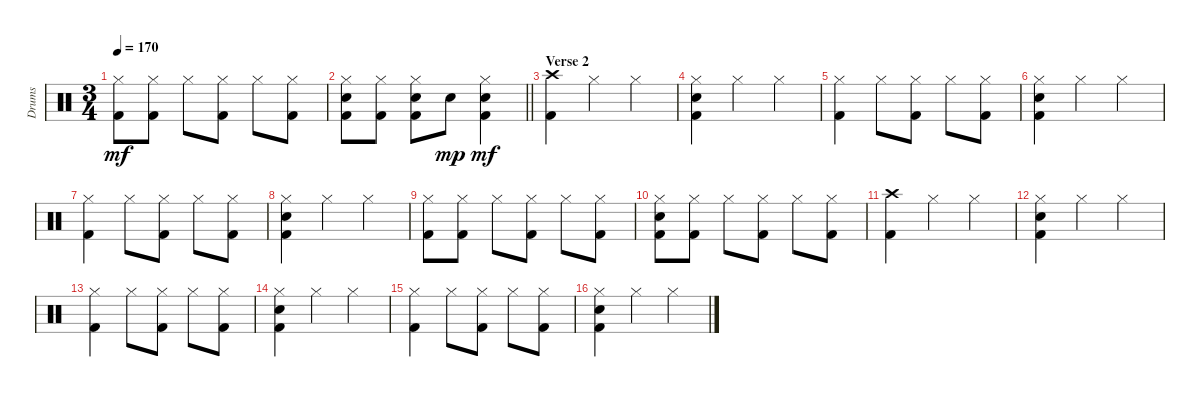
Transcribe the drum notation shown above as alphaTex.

\track ("Drums" "Drums") {instrument percussion}
\staff {score}
\articulation defaults
\ts (3 4)
\tempo 170
\clef neutral
\ks c
("Hi-Hat (closed)" "Kick (hit) 2").8{dy mf} ("Hi-Hat (closed)" "Kick (hit) 2").8 "Hi-Hat (closed)".8 ("Hi-Hat (closed)" "Kick (hit) 2").8 "Hi-Hat (closed)".8 ("Hi-Hat (closed)" "Kick (hit) 2").8 |
\barLineRight lightlight
("Hi-Hat (closed)" "Snare (hit) 2" "Kick (hit) 2").8 ("Hi-Hat (closed)" "Kick (hit) 2").8 ("Hi-Hat (closed)" "Snare (hit) 2" "Kick (hit) 2").8 "Snare (hit) 2".8{dy mp} ("Hi-Hat (closed)" "Snare (hit) 2" "Kick (hit) 2").4{dy mf} |
\section ("" "Verse 2")
("Crash high (hit)" "Kick (hit) 2").4 "Hi-Hat (closed)".4 "Hi-Hat (closed)".4 |
("Hi-Hat (closed)" "Snare (hit) 2" "Kick (hit) 2").4 "Hi-Hat (closed)".4 "Hi-Hat (closed)".4 |
("Hi-Hat (closed)" "Kick (hit) 2").4 "Hi-Hat (closed)".8 ("Hi-Hat (closed)" "Kick (hit) 2").8 "Hi-Hat (closed)".8 ("Hi-Hat (closed)" "Kick (hit) 2").8 |
("Hi-Hat (closed)" "Snare (hit) 2" "Kick (hit) 2").4 "Hi-Hat (closed)".4 "Hi-Hat (closed)".4 |
("Hi-Hat (closed)" "Kick (hit) 2").4 "Hi-Hat (closed)".8 ("Hi-Hat (closed)" "Kick (hit) 2").8 "Hi-Hat (closed)".8 ("Hi-Hat (closed)" "Kick (hit) 2").8 |
("Hi-Hat (closed)" "Snare (hit) 2" "Kick (hit) 2").4 "Hi-Hat (closed)".4 "Hi-Hat (closed)".4 |
("Hi-Hat (closed)" "Kick (hit) 2").8 ("Hi-Hat (closed)" "Kick (hit) 2").8 "Hi-Hat (closed)".8 ("Hi-Hat (closed)" "Kick (hit) 2").8 "Hi-Hat (closed)".8 ("Hi-Hat (closed)" "Kick (hit) 2").8 |
("Hi-Hat (closed)" "Snare (hit) 2" "Kick (hit) 2").8 ("Hi-Hat (closed)" "Kick (hit) 2").8 "Hi-Hat (closed)".8 ("Hi-Hat (closed)" "Kick (hit) 2").8 "Hi-Hat (closed)".8 ("Hi-Hat (closed)" "Kick (hit) 2").8 |
("Crash high (hit)" "Kick (hit) 2").4 "Hi-Hat (closed)".4 "Hi-Hat (closed)".4 |
("Hi-Hat (closed)" "Snare (hit) 2" "Kick (hit) 2").4 "Hi-Hat (closed)".4 "Hi-Hat (closed)".4 |
("Hi-Hat (closed)" "Kick (hit) 2").4 "Hi-Hat (closed)".8 ("Hi-Hat (closed)" "Kick (hit) 2").8 "Hi-Hat (closed)".8 ("Hi-Hat (closed)" "Kick (hit) 2").8 |
("Hi-Hat (closed)" "Snare (hit) 2" "Kick (hit) 2").4 "Hi-Hat (closed)".4 "Hi-Hat (closed)".4 |
("Hi-Hat (closed)" "Kick (hit) 2").4 "Hi-Hat (closed)".8 ("Hi-Hat (closed)" "Kick (hit) 2").8 "Hi-Hat (closed)".8 ("Hi-Hat (closed)" "Kick (hit) 2").8 |
("Hi-Hat (closed)" "Snare (hit) 2" "Kick (hit) 2").4 "Hi-Hat (closed)".4 "Hi-Hat (closed)".4
